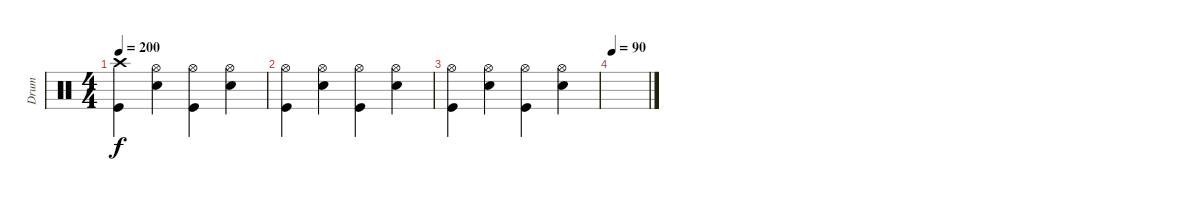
\track ("Drum" "Drum") {instrument percussion}
\staff {score}
\articulation defaults
\ts (4 4)
\tempo 200
\clef neutral
\ks c
("Crash high (hit)" "Kick (hit)").4{dy f} ("Hi-Hat (open)" "Electric Snare (hit)").4 ("Hi-Hat (open)" "Kick (hit)").4 ("Hi-Hat (open)" "Electric Snare (hit)").4 |
("Hi-Hat (open)" "Kick (hit)").4 ("Hi-Hat (open)" "Electric Snare (hit)").4 ("Hi-Hat (open)" "Kick (hit)").4 ("Hi-Hat (open)" "Electric Snare (hit)").4 |
("Hi-Hat (open)" "Kick (hit)").4 ("Hi-Hat (open)" "Electric Snare (hit)").4 ("Hi-Hat (open)" "Kick (hit)").4 ("Hi-Hat (open)" "Electric Snare (hit)").4 |
\tempo 90
